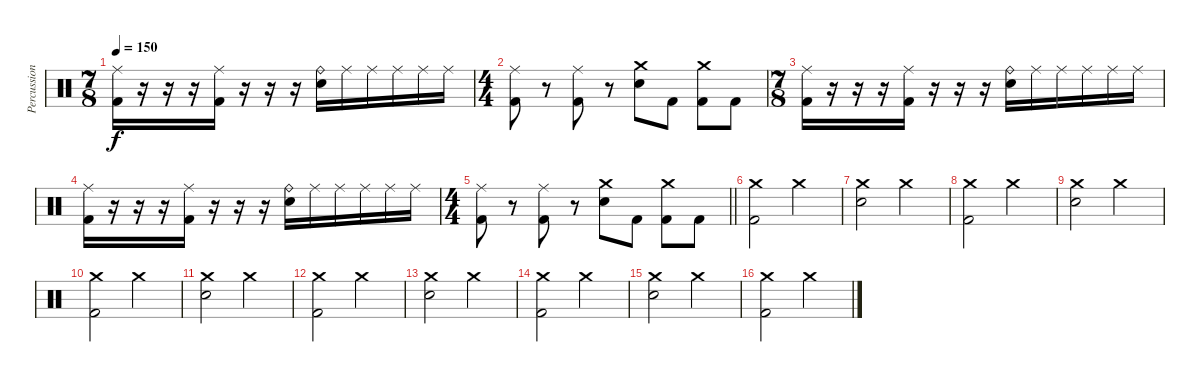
\track ("Percussion" "Percussion") {instrument percussion}
\staff {score}
\articulation defaults
\ts (7 8)
\tempo 150
\clef neutral
\ks c
("Ride (middle)" "Kick (hit) 2").16{dy f} r.16 r.16 r.16 ("Ride (middle)" "Kick (hit) 2").16 r.16 r.16 r.16 ("Ride (bell)" "Electric Snare (hit)").16 "Ride (middle)".16 "Ride (middle)".16 "Ride (middle)".16 "Ride (middle)".16 "Ride (middle)".16 |
\ts (4 4)
("Ride (middle)" "Kick (hit) 2").8 r.8 ("Ride (middle)" "Kick (hit) 2").8 r.8 ("Crash medium (hit)" "Electric Snare (hit)").8 "Kick (hit) 2".8 ("Crash medium (hit)" "Kick (hit) 2").8 "Kick (hit) 2".8 |
\ts (7 8)
("Ride (middle)" "Kick (hit) 2").16 r.16 r.16 r.16 ("Ride (middle)" "Kick (hit) 2").16 r.16 r.16 r.16 ("Ride (bell)" "Electric Snare (hit)").16 "Ride (middle)".16 "Ride (middle)".16 "Ride (middle)".16 "Ride (middle)".16 "Ride (middle)".16 |
("Ride (middle)" "Kick (hit) 2").16 r.16 r.16 r.16 ("Ride (middle)" "Kick (hit) 2").16 r.16 r.16 r.16 ("Ride (bell)" "Electric Snare (hit)").16 "Ride (middle)".16 "Ride (middle)".16 "Ride (middle)".16 "Ride (middle)".16 "Ride (middle)".16 |
\ts (4 4)
\barLineRight lightlight
("Ride (middle)" "Kick (hit) 2").8 r.8 ("Ride (middle)" "Kick (hit) 2").8 r.8 ("Crash medium (hit)" "Electric Snare (hit)").8 "Kick (hit) 2".8 ("Crash medium (hit)" "Kick (hit) 2").8 "Kick (hit) 2".8 |
\section ("" "")
("Crash medium (hit)" "Kick (hit) 2").2 "Crash medium (hit)".2 |
("Crash medium (hit)" "Electric Snare (hit)").2 "Crash medium (hit)".2 |
("Crash medium (hit)" "Kick (hit) 2").2 "Crash medium (hit)".2 |
("Crash medium (hit)" "Electric Snare (hit)").2 "Crash medium (hit)".2 |
("Crash medium (hit)" "Kick (hit) 2").2 "Crash medium (hit)".2 |
("Crash medium (hit)" "Electric Snare (hit)").2 "Crash medium (hit)".2 |
("Crash medium (hit)" "Kick (hit) 2").2 "Crash medium (hit)".2 |
("Crash medium (hit)" "Electric Snare (hit)").2 "Crash medium (hit)".2 |
("Crash medium (hit)" "Kick (hit) 2").2 "Crash medium (hit)".2 |
("Crash medium (hit)" "Electric Snare (hit)").2 "Crash medium (hit)".2 |
("Crash medium (hit)" "Kick (hit) 2").2 "Crash medium (hit)".2
